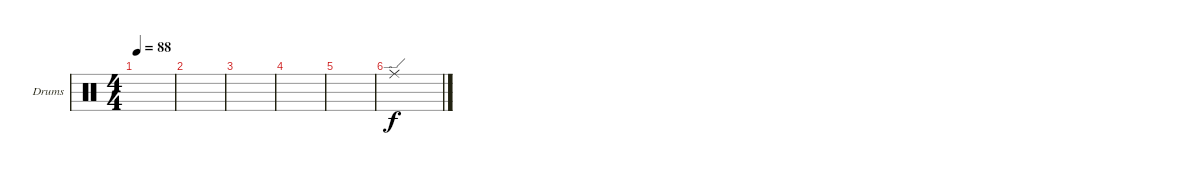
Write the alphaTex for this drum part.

\defaultSystemsLayout 4
\bracketExtendMode groupsimilarinstruments
\firstSystemTrackNameOrientation horizontal
\otherSystemsTrackNameOrientation horizontal
\track ("Helders" "Drums") {instrument percussion}
\staff {score}
\articulation defaults
\ts (4 4)
\tempo 88
\clef neutral
\ks c
|
|
|
|
|
"Ride (edge)".1
